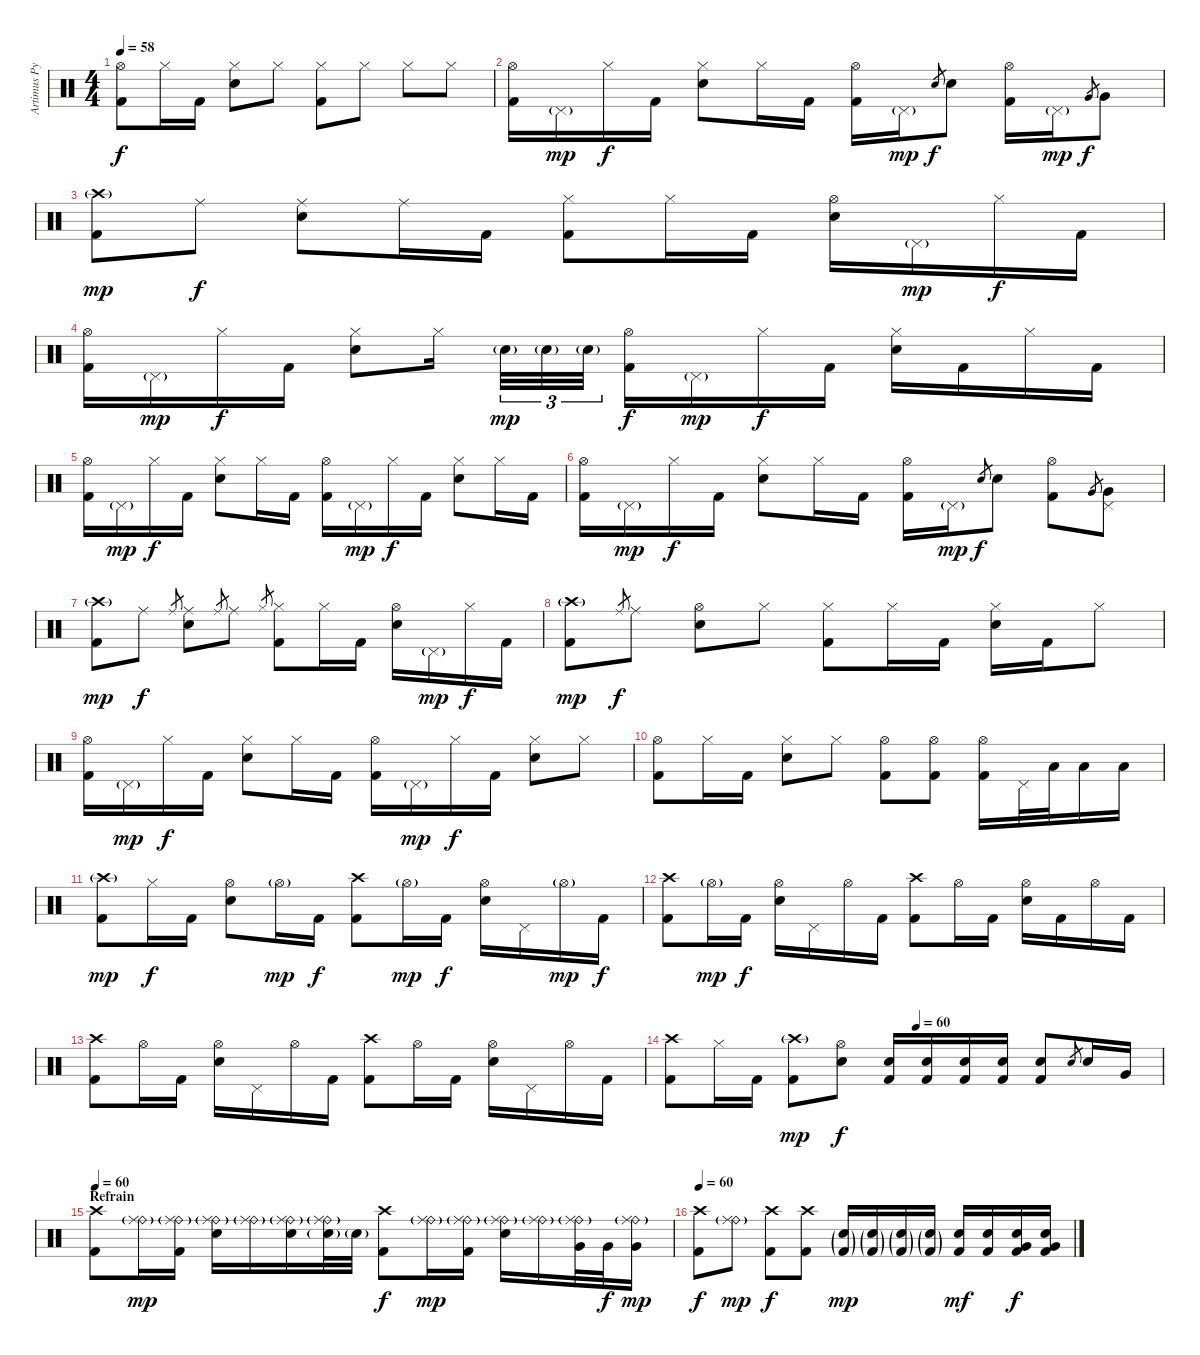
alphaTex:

\track ("Artimus Pyle (drums)" "Artimus Py") {instrument percussion}
\staff {score}
\articulation defaults
\ts (4 4)
\tempo 58
\clef neutral
\ks c
("Hi-Hat (open)" "Kick (hit) 2").8{dy f} "Hi-Hat (closed)".16 "Kick (hit) 2".16 ("Hi-Hat (closed)" "Electric Snare (hit)").8 "Hi-Hat (closed)".8 ("Hi-Hat (closed)" "Kick (hit) 2").8 "Hi-Hat (closed)".8 "Hi-Hat (closed)".8 "Hi-Hat (closed)".8 |
("Hi-Hat (open)" "Kick (hit) 2").16 "Pedal Hi-Hat (hit)"{g}.16{dy mp} "Hi-Hat (closed)".16{dy f} "Kick (hit) 2".16 ("Hi-Hat (closed)" "Electric Snare (hit)").8 "Hi-Hat (closed)".16 "Kick (hit) 2".16 ("Hi-Hat (open)" "Kick (hit) 2").16 "Pedal Hi-Hat (hit)"{g}.16{dy mp} "Electric Snare (hit)".8{gr dy f} "Electric Snare (hit)".8 ("Hi-Hat (open)" "Kick (hit) 2").16 "Pedal Hi-Hat (hit)"{g}.16{dy mp} "Very Low Tom (hit)".8{gr dy f} "Very Low Tom (hit)".8 |
("Crash high (hit)"{g} "Kick (hit) 2").8{dy mp} "Ride (middle)".8{dy f} ("Ride (middle)" "Electric Snare (hit)").8 "Ride (middle)".16 "Kick (hit) 2".16 ("Hi-Hat (closed)" "Kick (hit) 2").8 "Hi-Hat (closed)".16 "Kick (hit) 2".16 ("Hi-Hat (open)" "Electric Snare (hit)").16 "Pedal Hi-Hat (hit)"{g}.16{dy mp} "Hi-Hat (closed)".16{dy f} "Kick (hit) 2".16 |
("Hi-Hat (open)" "Kick (hit) 2").16 "Pedal Hi-Hat (hit)"{g}.16{dy mp} "Hi-Hat (closed)".16{dy f} "Kick (hit) 2".16 ("Hi-Hat (closed)" "Electric Snare (hit)").8 "Hi-Hat (closed)".16 "Electric Snare (hit)"{g}.32{tu (3 2) dy mp} "Electric Snare (hit)"{g}.32{tu (3 2)} "Electric Snare (hit)"{g}.32{tu (3 2)} ("Hi-Hat (open)" "Kick (hit) 2").16{dy f} "Pedal Hi-Hat (hit)"{g}.16{dy mp} "Hi-Hat (closed)".16{dy f} "Kick (hit) 2".16 ("Hi-Hat (closed)" "Electric Snare (hit)").16 "Kick (hit) 2".16 "Hi-Hat (closed)".16 "Kick (hit) 2".16 |
("Hi-Hat (open)" "Kick (hit) 2").16 "Pedal Hi-Hat (hit)"{g}.16{dy mp} "Hi-Hat (closed)".16{dy f} "Kick (hit) 2".16 ("Hi-Hat (closed)" "Electric Snare (hit)").8 "Hi-Hat (closed)".16 "Kick (hit) 2".16 ("Hi-Hat (open)" "Kick (hit) 2").16 "Pedal Hi-Hat (hit)"{g}.16{dy mp} "Hi-Hat (closed)".16{dy f} "Kick (hit) 2".16 ("Hi-Hat (closed)" "Electric Snare (hit)").8 "Hi-Hat (closed)".16 "Kick (hit) 2".16 |
("Hi-Hat (open)" "Kick (hit) 2").16 "Pedal Hi-Hat (hit)"{g}.16{dy mp} "Hi-Hat (closed)".16{dy f} "Kick (hit) 2".16 ("Hi-Hat (closed)" "Electric Snare (hit)").8 "Hi-Hat (closed)".16 "Kick (hit) 2".16 ("Hi-Hat (open)" "Kick (hit) 2").16 "Pedal Hi-Hat (hit)"{g}.16{dy mp} "Electric Snare (hit)".8{gr dy f} "Electric Snare (hit)".8 ("Hi-Hat (open)" "Kick (hit) 2").8 "Very Low Tom (hit)".8{gr} ("Pedal Hi-Hat (hit)" "Very Low Tom (hit)").8 |
("Crash high (hit)"{g} "Kick (hit) 2").8{dy mp} "Ride (middle)".8{dy f} "Ride (middle)".8{gr} ("Ride (middle)" "Electric Snare (hit)").8 "Ride (middle)".8{gr} "Ride (middle)".8 "Hi-Hat (closed)".8{gr} ("Hi-Hat (closed)" "Kick (hit) 2").8 "Hi-Hat (closed)".16 "Kick (hit) 2".16 ("Hi-Hat (open)" "Electric Snare (hit)").16 "Pedal Hi-Hat (hit)"{g}.16{dy mp} "Hi-Hat (closed)".16{dy f} "Kick (hit) 2".16 |
("Crash high (hit)"{g} "Kick (hit) 2").8{dy mp} "Ride (middle)".8{gr dy f} "Ride (middle)".8 ("Hi-Hat (open)" "Electric Snare (hit)").8 "Hi-Hat (closed)".8 ("Hi-Hat (closed)" "Kick (hit) 2").8 "Hi-Hat (closed)".16 "Kick (hit) 2".16 ("Hi-Hat (closed)" "Electric Snare (hit)").16 "Kick (hit) 2".16 "Hi-Hat (closed)".8 |
("Hi-Hat (open)" "Kick (hit) 2").16 "Pedal Hi-Hat (hit)"{g}.16{dy mp} "Hi-Hat (closed)".16{dy f} "Kick (hit) 2".16 ("Hi-Hat (closed)" "Electric Snare (hit)").8 "Hi-Hat (closed)".16 "Kick (hit) 2".16 ("Hi-Hat (open)" "Kick (hit) 2").16 "Pedal Hi-Hat (hit)"{g}.16{dy mp} "Hi-Hat (closed)".16{dy f} "Kick (hit) 2".16 ("Hi-Hat (closed)" "Electric Snare (hit)").8 "Hi-Hat (closed)".8 |
("Hi-Hat (open)" "Kick (hit) 2").8 "Hi-Hat (closed)".16 "Kick (hit) 2".16 ("Hi-Hat (closed)" "Electric Snare (hit)").8 "Hi-Hat (closed)".8 ("Hi-Hat (open)" "Kick (hit) 2").8 ("Hi-Hat (open)" "Kick (hit) 2").8 ("Hi-Hat (open)" "Kick (hit) 2").16 "Pedal Hi-Hat (hit)".32 "Low Tom (hit)".32 "Low Tom (hit)".16 "Low Tom (hit)".16 |
("Crash high (hit)"{g} "Kick (hit) 2").8{dy mp} "Hi-Hat (closed)".16{dy f} "Kick (hit) 2".16 ("Hi-Hat (open)" "Electric Snare (hit)").8 "Hi-Hat (open)"{g}.16{dy mp} "Kick (hit) 2".16{dy f} ("Crash high (hit)" "Kick (hit) 2").8 "Hi-Hat (open)"{g}.16{dy mp} "Kick (hit) 2".16{dy f} ("Hi-Hat (open)" "Electric Snare (hit)").16 "Pedal Hi-Hat (hit)".16 "Hi-Hat (open)"{g}.16{dy mp} "Kick (hit) 2".16{dy f} |
("Crash high (hit)" "Kick (hit) 2").8 "Hi-Hat (open)"{g}.16{dy mp} "Kick (hit) 2".16{dy f} ("Hi-Hat (open)" "Electric Snare (hit)").16 "Pedal Hi-Hat (hit)".16 "Hi-Hat (open)".16 "Kick (hit) 2".16 ("Crash high (hit)" "Kick (hit) 2").8 "Hi-Hat (open)".16 "Kick (hit) 2".16 ("Hi-Hat (open)" "Electric Snare (hit)").16 "Kick (hit) 2".16 "Hi-Hat (open)".16 "Kick (hit) 2".16 |
("Crash high (hit)" "Kick (hit) 2").8 "Hi-Hat (open)".16 "Kick (hit) 2".16 ("Hi-Hat (open)" "Electric Snare (hit)").16 "Pedal Hi-Hat (hit)".16 "Hi-Hat (open)".16 "Kick (hit) 2".16 ("Crash high (hit)" "Kick (hit) 2").8 "Hi-Hat (open)".16 "Kick (hit) 2".16 ("Hi-Hat (open)" "Electric Snare (hit)").16 "Pedal Hi-Hat (hit)".16 "Hi-Hat (open)".16 "Kick (hit) 2".16 |
\tempo (60 0.5)
("Crash high (hit)" "Kick (hit) 2").8 "Hi-Hat (closed)".16 "Kick (hit) 2".16 ("Crash high (hit)"{g} "Kick (hit) 2").8{dy mp} ("Hi-Hat (open)" "Electric Snare (hit)").8{dy f} ("Electric Snare (hit)" "Kick (hit) 2").16 ("Electric Snare (hit)" "Kick (hit) 2").16 ("Electric Snare (hit)" "Kick (hit) 2").16 ("Electric Snare (hit)" "Kick (hit) 2").16 ("Electric Snare (hit)" "Kick (hit) 2").8 "Electric Snare (hit)".8{gr} "Electric Snare (hit)".16 "Very Low Tom (hit)".16 |
\section ("" "Refrain")
\tempo 60
("Crash high (hit)" "Kick (hit) 2").8 ("Ride (bell)"{g} "Ride (middle)").16{dy mp} ("Ride (bell)"{g} "Ride (middle)" "Kick (hit) 2").16 ("Ride (bell)"{g} "Ride (middle)" "Electric Snare (hit)").16 ("Ride (bell)"{g} "Ride (middle)").16 ("Ride (bell)"{g} "Ride (middle)" "Electric Snare (hit)").16 ("Ride (bell)"{g} "Ride (middle)" "Electric Snare (hit)"{g}).32 "Electric Snare (hit)"{g}.32 ("Crash high (hit)" "Kick (hit) 2").8{dy f} ("Ride (bell)"{g} "Ride (middle)").16{dy mp} ("Ride (bell)"{g} "Ride (middle)" "Kick (hit) 2").16 ("Ride (bell)"{g} "Ride (middle)" "Electric Snare (hit)").16 ("Ride (bell)"{g} "Ride (middle)").16 ("Ride (bell)"{g} "Ride (middle)" "Very Low Tom (hit)").32 "Very Low Tom (hit)".32{dy f} ("Ride (bell)"{g} "Ride (middle)" "Very Low Tom (hit)").16{dy mp} |
\tempo 60
("Crash high (hit)" "Kick (hit) 2").8{dy f} ("Ride (bell)"{g} "Ride (middle)").8{dy mp} ("Crash high (hit)" "Kick (hit) 2").8{dy f} ("Crash high (hit)" "Kick (hit) 2").8 ("Electric Snare (hit)"{g} "Kick (hit) 2"{g}).16{dy mp} ("Electric Snare (hit)"{g} "Kick (hit) 2"{g}).16 ("Electric Snare (hit)"{g} "Kick (hit) 2"{g}).16 ("Electric Snare (hit)"{g} "Kick (hit) 2"{g}).16 ("Electric Snare (hit)" "Kick (hit) 2").16{dy mf} ("Electric Snare (hit)" "Kick (hit) 2").16 ("Very Low Tom (hit)" "Electric Snare (hit)" "Kick (hit) 2").16{dy f} ("Very Low Tom (hit)" "Electric Snare (hit)" "Kick (hit) 2").16
